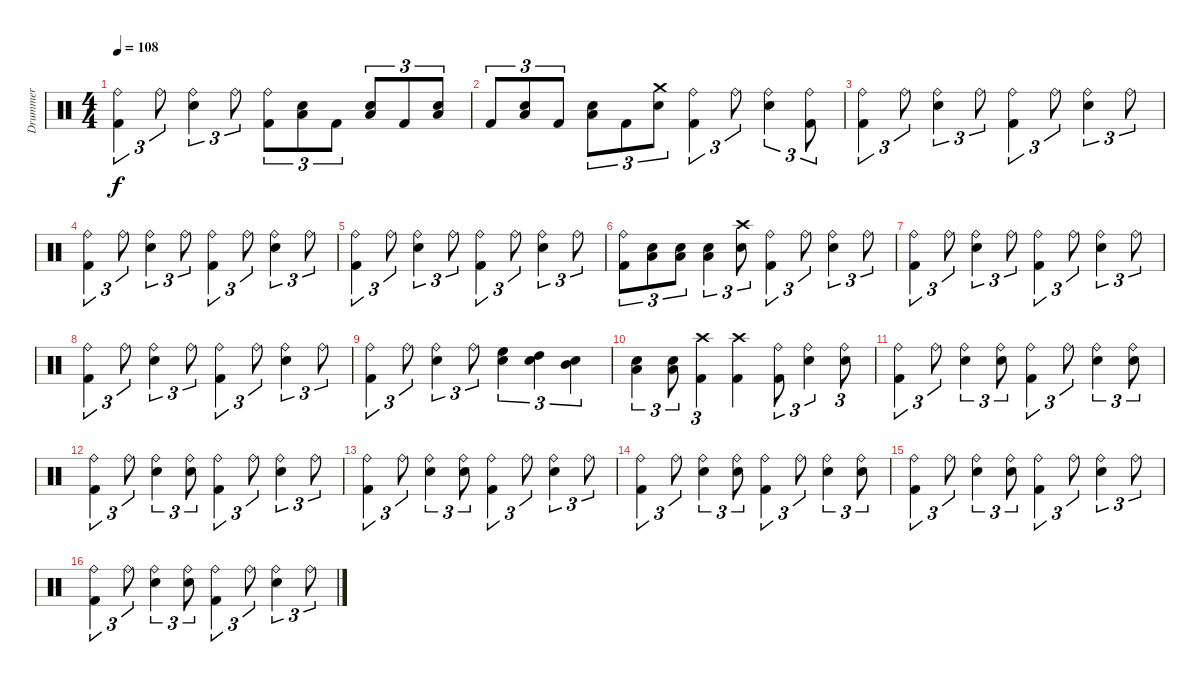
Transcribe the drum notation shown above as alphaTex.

\track ("Drummer" "Drummer") {instrument percussion}
\staff {score}
\articulation defaults
\ts (4 4)
\tempo 108
\clef neutral
\ks c
("Ride (bell)" "Kick (hit) 2").4{tu (3 2) dy f} "Ride (bell)".8{tu (3 2)} ("Ride (bell)" "Electric Snare (hit)").4{tu (3 2)} "Ride (bell)".8{tu (3 2)} ("Ride (bell)" "Kick (hit) 2").8{tu (3 2)} ("Low Floor Tom (hit)" "Electric Snare (hit)").8{tu (3 2)} "Kick (hit) 2".8{tu (3 2)} ("Low Floor Tom (hit)" "Electric Snare (hit)").8{tu (3 2)} "Kick (hit) 2".8{tu (3 2)} ("Low Floor Tom (hit)" "Electric Snare (hit)").8{tu (3 2)} |
"Kick (hit) 2".8{tu (3 2)} ("Low Floor Tom (hit)" "Electric Snare (hit)").8{tu (3 2)} "Kick (hit) 2".8{tu (3 2)} ("Low Floor Tom (hit)" "Electric Snare (hit)").8{tu (3 2)} "Kick (hit) 2".8{tu (3 2)} ("Crash medium (hit)" "Electric Snare (hit)").8{tu (3 2)} ("Ride (bell)" "Kick (hit) 2").4{tu (3 2)} "Ride (bell)".8{tu (3 2)} ("Ride (bell)" "Electric Snare (hit)").4{tu (3 2)} ("Ride (bell)" "Kick (hit) 2").8{tu (3 2)} |
("Ride (bell)" "Kick (hit) 2").4{tu (3 2)} "Ride (bell)".8{tu (3 2)} ("Ride (bell)" "Electric Snare (hit)").4{tu (3 2)} "Ride (bell)".8{tu (3 2)} ("Ride (bell)" "Kick (hit) 2").4{tu (3 2)} "Ride (bell)".8{tu (3 2)} ("Ride (bell)" "Electric Snare (hit)").4{tu (3 2)} "Ride (bell)".8{tu (3 2)} |
("Ride (bell)" "Kick (hit) 2").4{tu (3 2)} "Ride (bell)".8{tu (3 2)} ("Ride (bell)" "Electric Snare (hit)").4{tu (3 2)} "Ride (bell)".8{tu (3 2)} ("Ride (bell)" "Kick (hit) 2").4{tu (3 2)} "Ride (bell)".8{tu (3 2)} ("Ride (bell)" "Electric Snare (hit)").4{tu (3 2)} "Ride (bell)".8{tu (3 2)} |
("Ride (bell)" "Kick (hit) 2").4{tu (3 2)} "Ride (bell)".8{tu (3 2)} ("Ride (bell)" "Electric Snare (hit)").4{tu (3 2)} "Ride (bell)".8{tu (3 2)} ("Ride (bell)" "Kick (hit) 2").4{tu (3 2)} "Ride (bell)".8{tu (3 2)} ("Ride (bell)" "Electric Snare (hit)").4{tu (3 2)} "Ride (bell)".8{tu (3 2)} |
("Ride (bell)" "Kick (hit) 2").8{tu (3 2)} ("Low Floor Tom (hit)" "Electric Snare (hit)").8{tu (3 2)} ("Low Floor Tom (hit)" "Electric Snare (hit)").8{tu (3 2)} ("Low Floor Tom (hit)" "Electric Snare (hit)").4{tu (3 2)} ("Crash high (hit)" "Electric Snare (hit)").8{tu (3 2)} ("Ride (bell)" "Kick (hit) 2").4{tu (3 2)} "Ride (bell)".8{tu (3 2)} ("Ride (bell)" "Electric Snare (hit)").4{tu (3 2)} "Ride (bell)".8{tu (3 2)} |
("Ride (bell)" "Kick (hit) 2").4{tu (3 2)} "Ride (bell)".8{tu (3 2)} ("Ride (bell)" "Electric Snare (hit)").4{tu (3 2)} "Ride (bell)".8{tu (3 2)} ("Ride (bell)" "Kick (hit) 2").4{tu (3 2)} "Ride (bell)".8{tu (3 2)} ("Ride (bell)" "Electric Snare (hit)").4{tu (3 2)} "Ride (bell)".8{tu (3 2)} |
("Ride (bell)" "Kick (hit) 2").4{tu (3 2)} "Ride (bell)".8{tu (3 2)} ("Ride (bell)" "Electric Snare (hit)").4{tu (3 2)} "Ride (bell)".8{tu (3 2)} ("Ride (bell)" "Kick (hit) 2").4{tu (3 2)} "Ride (bell)".8{tu (3 2)} ("Ride (bell)" "Electric Snare (hit)").4{tu (3 2)} "Ride (bell)".8{tu (3 2)} |
("Ride (bell)" "Kick (hit) 2").4{tu (3 2)} "Ride (bell)".8{tu (3 2)} ("Ride (bell)" "Electric Snare (hit)").4{tu (3 2)} "Ride (bell)".8{tu (3 2)} ("High Floor Tom (hit)" "Electric Snare (hit)").4{tu (3 2)} ("High Tom (hit)" "Electric Snare (hit)").4{tu (3 2)} ("Mid Tom (hit)" "Electric Snare (hit)").4{tu (3 2)} |
("Low Tom (hit)" "Electric Snare (hit)").4{tu (3 2)} ("Low Floor Tom (hit)" "Electric Snare (hit)").8{tu (3 2)} ("Crash high (hit)" "Kick (hit) 2").4{tu (3 2)} ("Crash high (hit)" "Kick (hit) 2").4 ("Ride (bell)" "Kick (hit) 2").8{tu (3 2)} ("Ride (bell)" "Electric Snare (hit)").4{tu (3 2)} ("Ride (bell)" "Electric Snare (hit)").8{tu (3 2)} |
("Ride (bell)" "Kick (hit) 2").4{tu (3 2)} "Ride (bell)".8{tu (3 2)} ("Ride (bell)" "Electric Snare (hit)").4{tu (3 2)} ("Ride (bell)" "Electric Snare (hit)").8{tu (3 2)} ("Ride (bell)" "Kick (hit) 2").4{tu (3 2)} "Ride (bell)".8{tu (3 2)} ("Ride (bell)" "Electric Snare (hit)").4{tu (3 2)} ("Ride (bell)" "Electric Snare (hit)").8{tu (3 2)} |
("Ride (bell)" "Kick (hit) 2").4{tu (3 2)} "Ride (bell)".8{tu (3 2)} ("Ride (bell)" "Electric Snare (hit)").4{tu (3 2)} ("Ride (bell)" "Electric Snare (hit)").8{tu (3 2)} ("Ride (bell)" "Kick (hit) 2").4{tu (3 2)} "Ride (bell)".8{tu (3 2)} ("Ride (bell)" "Electric Snare (hit)").4{tu (3 2)} "Ride (bell)".8{tu (3 2)} |
("Ride (bell)" "Kick (hit) 2").4{tu (3 2)} "Ride (bell)".8{tu (3 2)} ("Ride (bell)" "Electric Snare (hit)").4{tu (3 2)} ("Ride (bell)" "Electric Snare (hit)").8{tu (3 2)} ("Ride (bell)" "Kick (hit) 2").4{tu (3 2)} "Ride (bell)".8{tu (3 2)} ("Ride (bell)" "Electric Snare (hit)").4{tu (3 2)} "Ride (bell)".8{tu (3 2)} |
("Ride (bell)" "Kick (hit) 2").4{tu (3 2)} "Ride (bell)".8{tu (3 2)} ("Ride (bell)" "Electric Snare (hit)").4{tu (3 2)} ("Ride (bell)" "Electric Snare (hit)").8{tu (3 2)} ("Ride (bell)" "Kick (hit) 2").4{tu (3 2)} "Ride (bell)".8{tu (3 2)} ("Ride (bell)" "Electric Snare (hit)").4{tu (3 2)} ("Ride (bell)" "Electric Snare (hit)").8{tu (3 2)} |
("Ride (bell)" "Kick (hit) 2").4{tu (3 2)} "Ride (bell)".8{tu (3 2)} ("Ride (bell)" "Electric Snare (hit)").4{tu (3 2)} ("Ride (bell)" "Electric Snare (hit)").8{tu (3 2)} ("Ride (bell)" "Kick (hit) 2").4{tu (3 2)} "Ride (bell)".8{tu (3 2)} ("Ride (bell)" "Electric Snare (hit)").4{tu (3 2)} "Ride (bell)".8{tu (3 2)} |
("Ride (bell)" "Kick (hit) 2").4{tu (3 2)} "Ride (bell)".8{tu (3 2)} ("Ride (bell)" "Electric Snare (hit)").4{tu (3 2)} ("Ride (bell)" "Electric Snare (hit)").8{tu (3 2)} ("Ride (bell)" "Kick (hit) 2").4{tu (3 2)} "Ride (bell)".8{tu (3 2)} ("Ride (bell)" "Electric Snare (hit)").4{tu (3 2)} "Ride (bell)".8{tu (3 2)}
